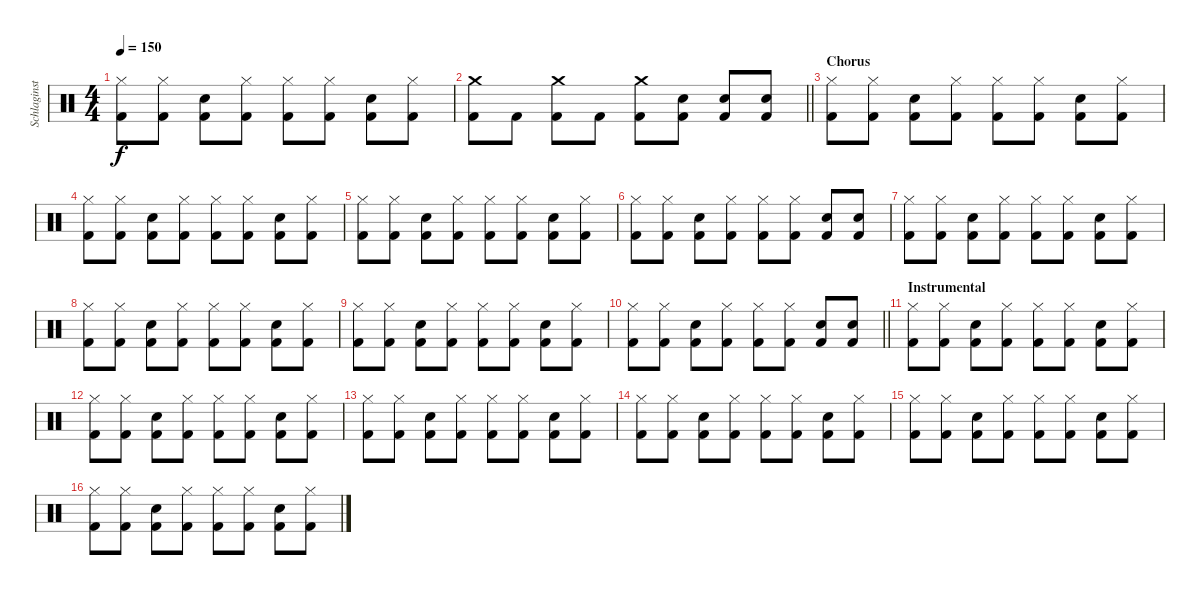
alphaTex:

\track ("Schlaginstrumente - Auswahl" "Schlaginst") {instrument percussion}
\staff {score}
\articulation defaults
\ts (4 4)
\tempo 150
\clef neutral
\ks c
("Hi-Hat (closed)" "Kick (hit) 2").8{dy f} ("Hi-Hat (closed)" "Kick (hit) 2").8 ("Snare (hit) 2" "Kick (hit) 2").8 ("Hi-Hat (closed)" "Kick (hit) 2").8 ("Hi-Hat (closed)" "Kick (hit) 2").8 ("Hi-Hat (closed)" "Kick (hit) 2").8 ("Snare (hit) 2" "Kick (hit) 2").8 ("Hi-Hat (closed)" "Kick (hit) 2").8 |
\barLineRight lightlight
("Crash medium (hit)" "Kick (hit) 2").8 "Kick (hit) 2".8 ("Crash medium (hit)" "Kick (hit) 2").8 "Kick (hit) 2".8 ("Crash medium (hit)" "Kick (hit) 2").8 ("Snare (hit) 2" "Kick (hit) 2").8 ("Snare (hit) 2" "Kick (hit) 2").8 ("Snare (hit) 2" "Kick (hit) 2").8 |
\section ("" "Chorus")
("Hi-Hat (closed)" "Kick (hit) 2").8 ("Hi-Hat (closed)" "Kick (hit) 2").8 ("Snare (hit) 2" "Kick (hit) 2").8 ("Hi-Hat (closed)" "Kick (hit) 2").8 ("Hi-Hat (closed)" "Kick (hit) 2").8 ("Hi-Hat (closed)" "Kick (hit) 2").8 ("Snare (hit) 2" "Kick (hit) 2").8 ("Hi-Hat (closed)" "Kick (hit) 2").8 |
("Hi-Hat (closed)" "Kick (hit) 2").8 ("Hi-Hat (closed)" "Kick (hit) 2").8 ("Snare (hit) 2" "Kick (hit) 2").8 ("Hi-Hat (closed)" "Kick (hit) 2").8 ("Hi-Hat (closed)" "Kick (hit) 2").8 ("Hi-Hat (closed)" "Kick (hit) 2").8 ("Snare (hit) 2" "Kick (hit) 2").8 ("Hi-Hat (closed)" "Kick (hit) 2").8 |
("Hi-Hat (closed)" "Kick (hit) 2").8 ("Hi-Hat (closed)" "Kick (hit) 2").8 ("Snare (hit) 2" "Kick (hit) 2").8 ("Hi-Hat (closed)" "Kick (hit) 2").8 ("Hi-Hat (closed)" "Kick (hit) 2").8 ("Hi-Hat (closed)" "Kick (hit) 2").8 ("Snare (hit) 2" "Kick (hit) 2").8 ("Hi-Hat (closed)" "Kick (hit) 2").8 |
("Hi-Hat (closed)" "Kick (hit) 2").8 ("Hi-Hat (closed)" "Kick (hit) 2").8 ("Snare (hit) 2" "Kick (hit) 2").8 ("Hi-Hat (closed)" "Kick (hit) 2").8 ("Hi-Hat (closed)" "Kick (hit) 2").8 ("Hi-Hat (closed)" "Kick (hit) 2").8 ("Snare (hit) 2" "Kick (hit) 2").8 ("Snare (hit) 2" "Kick (hit) 2").8 |
("Hi-Hat (closed)" "Kick (hit) 2").8 ("Hi-Hat (closed)" "Kick (hit) 2").8 ("Snare (hit) 2" "Kick (hit) 2").8 ("Hi-Hat (closed)" "Kick (hit) 2").8 ("Hi-Hat (closed)" "Kick (hit) 2").8 ("Hi-Hat (closed)" "Kick (hit) 2").8 ("Snare (hit) 2" "Kick (hit) 2").8 ("Hi-Hat (closed)" "Kick (hit) 2").8 |
("Hi-Hat (closed)" "Kick (hit) 2").8 ("Hi-Hat (closed)" "Kick (hit) 2").8 ("Snare (hit) 2" "Kick (hit) 2").8 ("Hi-Hat (closed)" "Kick (hit) 2").8 ("Hi-Hat (closed)" "Kick (hit) 2").8 ("Hi-Hat (closed)" "Kick (hit) 2").8 ("Snare (hit) 2" "Kick (hit) 2").8 ("Hi-Hat (closed)" "Kick (hit) 2").8 |
("Hi-Hat (closed)" "Kick (hit) 2").8 ("Hi-Hat (closed)" "Kick (hit) 2").8 ("Snare (hit) 2" "Kick (hit) 2").8 ("Hi-Hat (closed)" "Kick (hit) 2").8 ("Hi-Hat (closed)" "Kick (hit) 2").8 ("Hi-Hat (closed)" "Kick (hit) 2").8 ("Snare (hit) 2" "Kick (hit) 2").8 ("Hi-Hat (closed)" "Kick (hit) 2").8 |
\barLineRight lightlight
("Hi-Hat (closed)" "Kick (hit) 2").8 ("Hi-Hat (closed)" "Kick (hit) 2").8 ("Snare (hit) 2" "Kick (hit) 2").8 ("Hi-Hat (closed)" "Kick (hit) 2").8 ("Hi-Hat (closed)" "Kick (hit) 2").8 ("Hi-Hat (closed)" "Kick (hit) 2").8 ("Snare (hit) 2" "Kick (hit) 2").8 ("Snare (hit) 2" "Kick (hit) 2").8 |
\section ("" "Instrumental")
("Hi-Hat (closed)" "Kick (hit) 2").8 ("Hi-Hat (closed)" "Kick (hit) 2").8 ("Snare (hit) 2" "Kick (hit) 2").8 ("Hi-Hat (closed)" "Kick (hit) 2").8 ("Hi-Hat (closed)" "Kick (hit) 2").8 ("Hi-Hat (closed)" "Kick (hit) 2").8 ("Snare (hit) 2" "Kick (hit) 2").8 ("Hi-Hat (closed)" "Kick (hit) 2").8 |
("Hi-Hat (closed)" "Kick (hit) 2").8 ("Hi-Hat (closed)" "Kick (hit) 2").8 ("Snare (hit) 2" "Kick (hit) 2").8 ("Hi-Hat (closed)" "Kick (hit) 2").8 ("Hi-Hat (closed)" "Kick (hit) 2").8 ("Hi-Hat (closed)" "Kick (hit) 2").8 ("Snare (hit) 2" "Kick (hit) 2").8 ("Hi-Hat (closed)" "Kick (hit) 2").8 |
("Hi-Hat (closed)" "Kick (hit) 2").8 ("Hi-Hat (closed)" "Kick (hit) 2").8 ("Snare (hit) 2" "Kick (hit) 2").8 ("Hi-Hat (closed)" "Kick (hit) 2").8 ("Hi-Hat (closed)" "Kick (hit) 2").8 ("Hi-Hat (closed)" "Kick (hit) 2").8 ("Snare (hit) 2" "Kick (hit) 2").8 ("Hi-Hat (closed)" "Kick (hit) 2").8 |
("Hi-Hat (closed)" "Kick (hit) 2").8 ("Hi-Hat (closed)" "Kick (hit) 2").8 ("Snare (hit) 2" "Kick (hit) 2").8 ("Hi-Hat (closed)" "Kick (hit) 2").8 ("Hi-Hat (closed)" "Kick (hit) 2").8 ("Hi-Hat (closed)" "Kick (hit) 2").8 ("Snare (hit) 2" "Kick (hit) 2").8 ("Hi-Hat (closed)" "Kick (hit) 2").8 |
("Hi-Hat (closed)" "Kick (hit) 2").8 ("Hi-Hat (closed)" "Kick (hit) 2").8 ("Snare (hit) 2" "Kick (hit) 2").8 ("Hi-Hat (closed)" "Kick (hit) 2").8 ("Hi-Hat (closed)" "Kick (hit) 2").8 ("Hi-Hat (closed)" "Kick (hit) 2").8 ("Snare (hit) 2" "Kick (hit) 2").8 ("Hi-Hat (closed)" "Kick (hit) 2").8 |
("Hi-Hat (closed)" "Kick (hit) 2").8 ("Hi-Hat (closed)" "Kick (hit) 2").8 ("Snare (hit) 2" "Kick (hit) 2").8 ("Hi-Hat (closed)" "Kick (hit) 2").8 ("Hi-Hat (closed)" "Kick (hit) 2").8 ("Hi-Hat (closed)" "Kick (hit) 2").8 ("Snare (hit) 2" "Kick (hit) 2").8 ("Hi-Hat (closed)" "Kick (hit) 2").8
